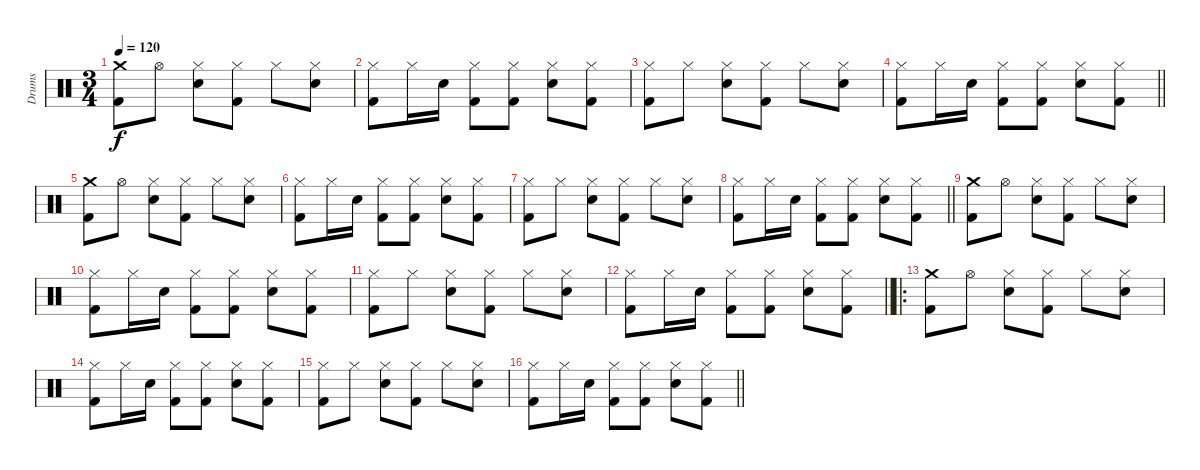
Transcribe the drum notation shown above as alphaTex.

\track ("Drums" "Drums") {instrument percussion}
\staff {score}
\articulation defaults
\ts (3 4)
\tempo 120
\clef neutral
\ks c
("Kick (hit) 2" "Crash medium (hit)").8{dy f} "Hi-Hat (open)".8 ("Electric Snare (hit)" "Hi-Hat (closed)").8 ("Kick (hit) 2" "Hi-Hat (closed)").8 "Hi-Hat (closed)".8 ("Electric Snare (hit)" "Hi-Hat (closed)").8 |
("Kick (hit) 2" "Hi-Hat (closed)").8 "Hi-Hat (closed)".16 "Electric Snare (hit)".16 ("Kick (hit) 2" "Hi-Hat (closed)").8 ("Kick (hit) 2" "Hi-Hat (closed)").8 ("Electric Snare (hit)" "Hi-Hat (closed)").8 ("Kick (hit) 2" "Hi-Hat (closed)").8 |
("Kick (hit) 2" "Hi-Hat (closed)").8 "Hi-Hat (closed)".8 ("Electric Snare (hit)" "Hi-Hat (closed)").8 ("Kick (hit) 2" "Hi-Hat (closed)").8 "Hi-Hat (closed)".8 ("Electric Snare (hit)" "Hi-Hat (closed)").8 |
\barLineRight lightlight
("Kick (hit) 2" "Hi-Hat (closed)").8 "Hi-Hat (closed)".16 "Electric Snare (hit)".16 ("Kick (hit) 2" "Hi-Hat (closed)").8 ("Kick (hit) 2" "Hi-Hat (closed)").8 ("Electric Snare (hit)" "Hi-Hat (closed)").8 ("Kick (hit) 2" "Hi-Hat (closed)").8 |
("Kick (hit) 2" "Crash medium (hit)").8 "Hi-Hat (open)".8 ("Electric Snare (hit)" "Hi-Hat (closed)").8 ("Kick (hit) 2" "Hi-Hat (closed)").8 "Hi-Hat (closed)".8 ("Electric Snare (hit)" "Hi-Hat (closed)").8 |
("Kick (hit) 2" "Hi-Hat (closed)").8 "Hi-Hat (closed)".16 "Electric Snare (hit)".16 ("Kick (hit) 2" "Hi-Hat (closed)").8 ("Kick (hit) 2" "Hi-Hat (closed)").8 ("Electric Snare (hit)" "Hi-Hat (closed)").8 ("Kick (hit) 2" "Hi-Hat (closed)").8 |
("Kick (hit) 2" "Hi-Hat (closed)").8 "Hi-Hat (closed)".8 ("Electric Snare (hit)" "Hi-Hat (closed)").8 ("Kick (hit) 2" "Hi-Hat (closed)").8 "Hi-Hat (closed)".8 ("Electric Snare (hit)" "Hi-Hat (closed)").8 |
\barLineRight lightlight
("Kick (hit) 2" "Hi-Hat (closed)").8 "Hi-Hat (closed)".16 "Electric Snare (hit)".16 ("Kick (hit) 2" "Hi-Hat (closed)").8 ("Kick (hit) 2" "Hi-Hat (closed)").8 ("Electric Snare (hit)" "Hi-Hat (closed)").8 ("Kick (hit) 2" "Hi-Hat (closed)").8 |
("Kick (hit) 2" "Crash medium (hit)").8 "Hi-Hat (open)".8 ("Electric Snare (hit)" "Hi-Hat (closed)").8 ("Kick (hit) 2" "Hi-Hat (closed)").8 "Hi-Hat (closed)".8 ("Electric Snare (hit)" "Hi-Hat (closed)").8 |
("Kick (hit) 2" "Hi-Hat (closed)").8 "Hi-Hat (closed)".16 "Electric Snare (hit)".16 ("Kick (hit) 2" "Hi-Hat (closed)").8 ("Kick (hit) 2" "Hi-Hat (closed)").8 ("Electric Snare (hit)" "Hi-Hat (closed)").8 ("Kick (hit) 2" "Hi-Hat (closed)").8 |
("Kick (hit) 2" "Hi-Hat (closed)").8 "Hi-Hat (closed)".8 ("Electric Snare (hit)" "Hi-Hat (closed)").8 ("Kick (hit) 2" "Hi-Hat (closed)").8 "Hi-Hat (closed)".8 ("Electric Snare (hit)" "Hi-Hat (closed)").8 |
\barLineRight lightlight
("Kick (hit) 2" "Hi-Hat (closed)").8 "Hi-Hat (closed)".16 "Electric Snare (hit)".16 ("Kick (hit) 2" "Hi-Hat (closed)").8 ("Kick (hit) 2" "Hi-Hat (closed)").8 ("Electric Snare (hit)" "Hi-Hat (closed)").8 ("Kick (hit) 2" "Hi-Hat (closed)").8 |
\ro
("Kick (hit) 2" "Crash medium (hit)").8 "Hi-Hat (open)".8 ("Electric Snare (hit)" "Hi-Hat (closed)").8 ("Kick (hit) 2" "Hi-Hat (closed)").8 "Hi-Hat (closed)".8 ("Electric Snare (hit)" "Hi-Hat (closed)").8 |
("Kick (hit) 2" "Hi-Hat (closed)").8 "Hi-Hat (closed)".16 "Electric Snare (hit)".16 ("Kick (hit) 2" "Hi-Hat (closed)").8 ("Kick (hit) 2" "Hi-Hat (closed)").8 ("Electric Snare (hit)" "Hi-Hat (closed)").8 ("Kick (hit) 2" "Hi-Hat (closed)").8 |
("Kick (hit) 2" "Hi-Hat (closed)").8 "Hi-Hat (closed)".8 ("Electric Snare (hit)" "Hi-Hat (closed)").8 ("Kick (hit) 2" "Hi-Hat (closed)").8 "Hi-Hat (closed)".8 ("Electric Snare (hit)" "Hi-Hat (closed)").8 |
\barLineRight lightlight
("Kick (hit) 2" "Hi-Hat (closed)").8 "Hi-Hat (closed)".16 "Electric Snare (hit)".16 ("Kick (hit) 2" "Hi-Hat (closed)").8 ("Kick (hit) 2" "Hi-Hat (closed)").8 ("Electric Snare (hit)" "Hi-Hat (closed)").8 ("Kick (hit) 2" "Hi-Hat (closed)").8
